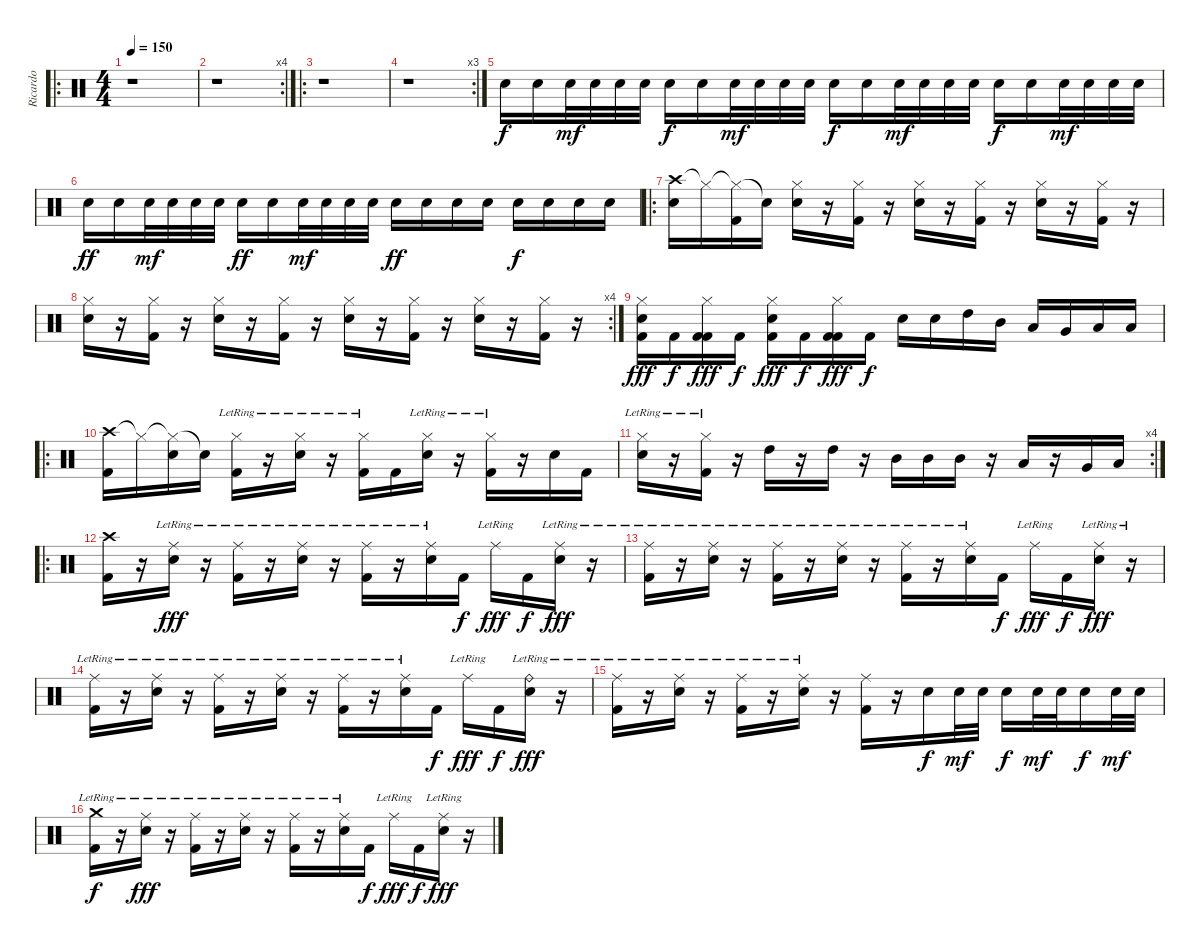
\track ("Ricardo" "Ricardo") {instrument percussion}
\staff {score}
\articulation defaults
\ro
\ts (4 4)
\tempo 150
\clef neutral
\ks c
r.1{dy f} |
\rc 4
r.1 |
\ro
r.1 |
\rc 3
r.1 |
"Snare (hit) 2".16 "Snare (hit) 2".16 "Snare (hit) 2".32{dy mf} "Snare (hit) 2".32 "Snare (hit) 2".32 "Snare (hit) 2".32 "Snare (hit) 2".16{dy f} "Snare (hit) 2".16 "Snare (hit) 2".32{dy mf} "Snare (hit) 2".32 "Snare (hit) 2".32 "Snare (hit) 2".32 "Snare (hit) 2".16{dy f} "Snare (hit) 2".16 "Snare (hit) 2".32{dy mf} "Snare (hit) 2".32 "Snare (hit) 2".32 "Snare (hit) 2".32 "Snare (hit) 2".16{dy f} "Snare (hit) 2".16 "Snare (hit) 2".32{dy mf} "Snare (hit) 2".32 "Snare (hit) 2".32 "Snare (hit) 2".32 |
"Snare (hit) 2".16{dy ff} "Snare (hit) 2".16 "Snare (hit) 2".32{dy mf} "Snare (hit) 2".32 "Snare (hit) 2".32 "Snare (hit) 2".32 "Snare (hit) 2".16{dy ff} "Snare (hit) 2".16 "Snare (hit) 2".32{dy mf} "Snare (hit) 2".32 "Snare (hit) 2".32 "Snare (hit) 2".32 "Snare (hit) 2".16{dy ff} "Snare (hit) 2".16 "Snare (hit) 2".16 "Snare (hit) 2".16 "Snare (hit) 2".16{dy f} "Snare (hit) 2".16 "Snare (hit) 2".16 "Snare (hit) 2".16 |
\ro
("Crash high (hit)" "Snare (hit) 2").16 "Hi-Hat (closed)"{t}.16 ("Hi-Hat (closed)"{t} "Kick (hit) 2").16 "Snare (hit)"{t}.16 ("Hi-Hat (closed)" "Snare (hit) 2").16 r.16 ("Hi-Hat (closed)" "Kick (hit) 2").16 r.16 ("Hi-Hat (closed)" "Snare (hit) 2").16 r.16 ("Hi-Hat (closed)" "Kick (hit) 2").16 r.16 ("Hi-Hat (closed)" "Snare (hit) 2").16 r.16 ("Hi-Hat (closed)" "Kick (hit) 2").16 r.16 |
\rc 4
("Hi-Hat (closed)" "Snare (hit) 2").16 r.16 ("Hi-Hat (closed)" "Kick (hit) 2").16 r.16 ("Hi-Hat (closed)" "Snare (hit) 2").16 r.16 ("Hi-Hat (closed)" "Kick (hit) 2").16 r.16 ("Hi-Hat (closed)" "Snare (hit) 2").16 r.16 ("Hi-Hat (closed)" "Kick (hit) 2").16 r.16 ("Hi-Hat (closed)" "Snare (hit) 2").16 r.16 ("Hi-Hat (closed)" "Kick (hit) 2").16 r.16 |
("Hi-Hat (closed)" "Snare (hit) 2" "Kick (hit) 2").16{dy fff} "Kick (hit) 2".16{dy f} ("Hi-Hat (closed)" "Kick (hit) 2" "Kick (hit) 2").16{dy fff} "Kick (hit) 2".16{dy f} ("Hi-Hat (closed)" "Snare (hit) 2" "Kick (hit) 2").16{dy fff} "Kick (hit) 2".16{dy f} ("Hi-Hat (closed)" "Kick (hit) 2" "Kick (hit) 2").16{dy fff} "Kick (hit) 2".16{dy f} "Snare (hit) 2".16 "Snare (hit) 2".16 "High Tom (hit)".16 "Mid Tom (hit)".16 "Low Tom (hit)".16 "Very Low Tom (hit)".16 "Low Floor Tom (hit)".16 "Low Floor Tom (hit)".16 |
\ro
("Crash high (hit)" "Kick (hit) 2").16 "Hi-Hat (closed)"{t}.16 ("Hi-Hat (closed)"{t} "Snare (hit) 2").16 "Snare (hit)"{t}.16 ("Hi-Hat (closed)"{lr} "Kick (hit) 2").16 r.16 ("Hi-Hat (closed)"{lr} "Snare (hit) 2").16 r.16 ("Hi-Hat (closed)"{lr} "Kick (hit) 2").16 "Kick (hit) 2".16 ("Hi-Hat (closed)"{lr} "Snare (hit) 2").16 r.16 ("Hi-Hat (closed)"{lr} "Kick (hit) 2").16 r.16 "Snare (hit) 2".16 "Kick (hit) 2".16 |
\rc 4
("Hi-Hat (closed)"{lr} "Snare (hit) 2").16 r.16 ("Hi-Hat (closed)"{lr} "Kick (hit) 2").16 r.16 "High Tom (hit)".16 r.16 "High Tom (hit)".16 r.16 "Mid Tom (hit)".16 "Mid Tom (hit)".16 "Mid Tom (hit)".16 r.16 "Low Tom (hit)".16 r.16 "Very Low Tom (hit)".16 "Low Floor Tom (hit)".16 |
\ro
("Crash high (hit)" "Kick (hit) 2").16 r.16 ("Ride (middle)"{lr} "Snare (hit) 2").16{dy fff} r.16 ("Ride (middle)"{lr} "Kick (hit) 2").16 r.16 ("Ride (middle)"{lr} "Snare (hit) 2").16 r.16 ("Ride (middle)"{lr} "Kick (hit) 2").16 r.16 ("Ride (middle)"{lr} "Snare (hit) 2").16 "Kick (hit) 2".16{dy f} "Ride (middle)"{lr}.16{dy fff} "Kick (hit) 2".16{dy f} ("Ride (middle)"{lr} "Snare (hit) 2").16{dy fff} r.16 |
("Ride (middle)"{lr} "Kick (hit) 2").16 r.16 ("Ride (middle)"{lr} "Snare (hit) 2").16 r.16 ("Ride (middle)"{lr} "Kick (hit) 2").16 r.16 ("Ride (middle)"{lr} "Snare (hit) 2").16 r.16 ("Ride (middle)"{lr} "Kick (hit) 2").16 r.16 ("Ride (middle)"{lr} "Snare (hit) 2").16 "Kick (hit) 2".16{dy f} "Ride (middle)"{lr}.16{dy fff} "Kick (hit) 2".16{dy f} ("Ride (middle)"{lr} "Snare (hit) 2").16{dy fff} r.16 |
("Ride (middle)"{lr} "Kick (hit) 2").16 r.16 ("Ride (middle)"{lr} "Snare (hit) 2").16 r.16 ("Ride (middle)"{lr} "Kick (hit) 2").16 r.16 ("Ride (middle)"{lr} "Snare (hit) 2").16 r.16 ("Ride (middle)"{lr} "Kick (hit) 2").16 r.16 ("Ride (middle)"{lr} "Snare (hit) 2").16 "Kick (hit) 2".16{dy f} "Ride (middle)"{lr}.16{dy fff} "Kick (hit) 2".16{dy f} ("Ride (bell)"{lr} "Snare (hit) 2").16{dy fff} r.16 |
("Ride (middle)"{lr} "Kick (hit) 2").16 r.16 ("Ride (middle)"{lr} "Snare (hit) 2").16 r.16 ("Ride (middle)"{lr} "Kick (hit) 2").16 r.16 ("Ride (middle)"{lr} "Snare (hit) 2").16 r.16 ("Ride (middle)" "Kick (hit) 2").16 r.16 "Snare (hit) 2".16{dy f} "Snare (hit) 2".32{dy mf} "Snare (hit) 2".32 "Snare (hit) 2".16{dy f} "Snare (hit) 2".32{dy mf} "Snare (hit) 2".32 "Snare (hit) 2".16{dy f} "Snare (hit) 2".32{dy mf} "Snare (hit) 2".32 |
("Crash medium (hit)"{lr} "Kick (hit) 2").16{dy f} r.16 ("Ride (middle)"{lr} "Snare (hit) 2").16{dy fff} r.16 ("Ride (middle)"{lr} "Kick (hit) 2").16 r.16 ("Ride (middle)"{lr} "Snare (hit) 2").16 r.16 ("Ride (middle)"{lr} "Kick (hit) 2").16 r.16 ("Ride (middle)"{lr} "Snare (hit) 2").16 "Kick (hit) 2".16{dy f} "Ride (middle)"{lr}.16{dy fff} "Kick (hit) 2".16{dy f} ("Ride (middle)"{lr} "Snare (hit) 2").16{dy fff} r.16
